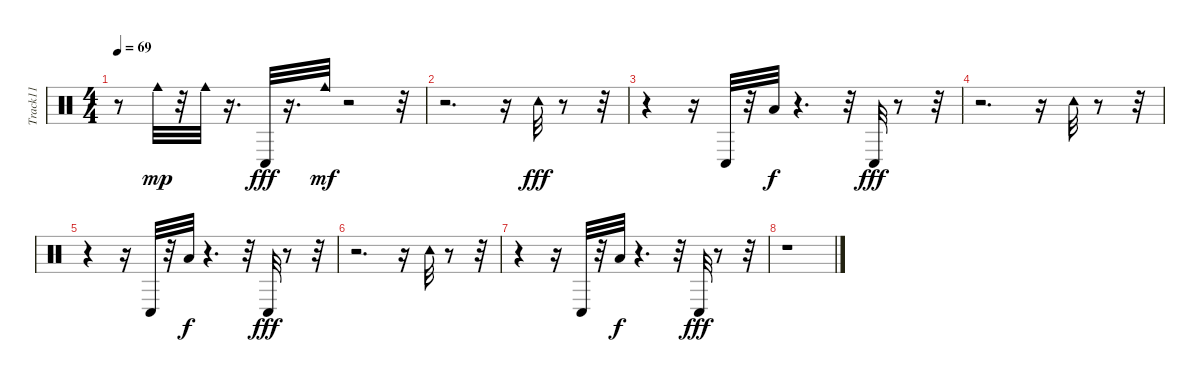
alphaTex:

\track ("Track11" "Track11") {instrument percussion}
\staff {score}
\articulation defaults
\ts (4 4)
\tempo 69
\clef neutral
\ks c
r.8{dy f} "Cowbell medium (hit)".32{dy mp} r.32 "Cowbell medium (hit)".32 r.16{d} "Conga low (hit)".32{dy fff} r.16{d} "Cowbell medium (hit)".32{dy mf} r.2 r.32 |
r.2{d} r.16 "Tambourine (hit)".32{dy fff} r.8 r.32 |
r.4 r.16 "Conga low (hit)".32 r.32 "Low Tom (hit)".32{dy f} r.4{d} r.32 "Conga low (hit)".32{dy fff} r.8 r.32 |
r.2{d} r.16 "Tambourine (hit)".32 r.8 r.32 |
r.4 r.16 "Conga low (hit)".32 r.32 "Low Tom (hit)".32{dy f} r.4{d} r.32 "Conga low (hit)".32{dy fff} r.8 r.32 |
r.2{d} r.16 "Tambourine (hit)".32 r.8 r.32 |
r.4 r.16 "Conga low (hit)".32 r.32 "Low Tom (hit)".32{dy f} r.4{d} r.32 "Conga low (hit)".32{dy fff} r.8 r.32 |
r.1
